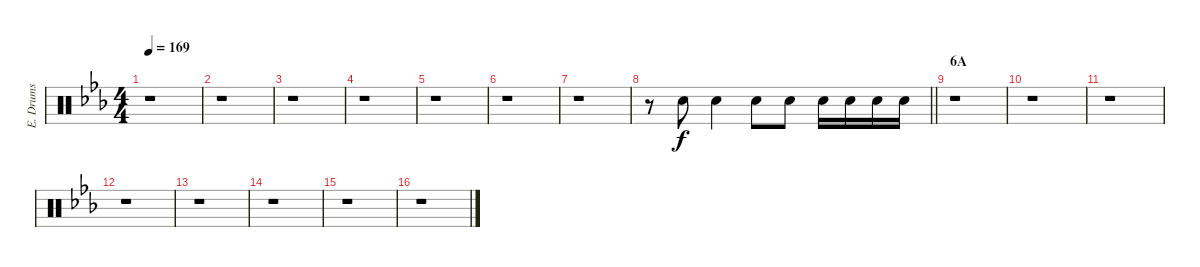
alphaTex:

\track ("E. Drums" "E. Drums") {instrument percussion}
\staff {score}
\articulation defaults
\ts (4 4)
\tempo 169
\clef neutral
\ks eb
r.1{dy mp} |
r.1 |
r.1 |
r.1 |
r.1 |
r.1 |
r.1 |
\barLineRight lightlight
r.8 "Electric Snare (hit)".8{dy f} "Electric Snare (hit)".4 "Electric Snare (hit)".8 "Electric Snare (hit)".8 "Electric Snare (hit)".16 "Electric Snare (hit)".16 "Electric Snare (hit)".16 "Electric Snare (hit)".16 |
\section ("" "6A")
r.1 |
r.1 |
r.1 |
r.1 |
r.1 |
r.1 |
r.1 |
r.1
